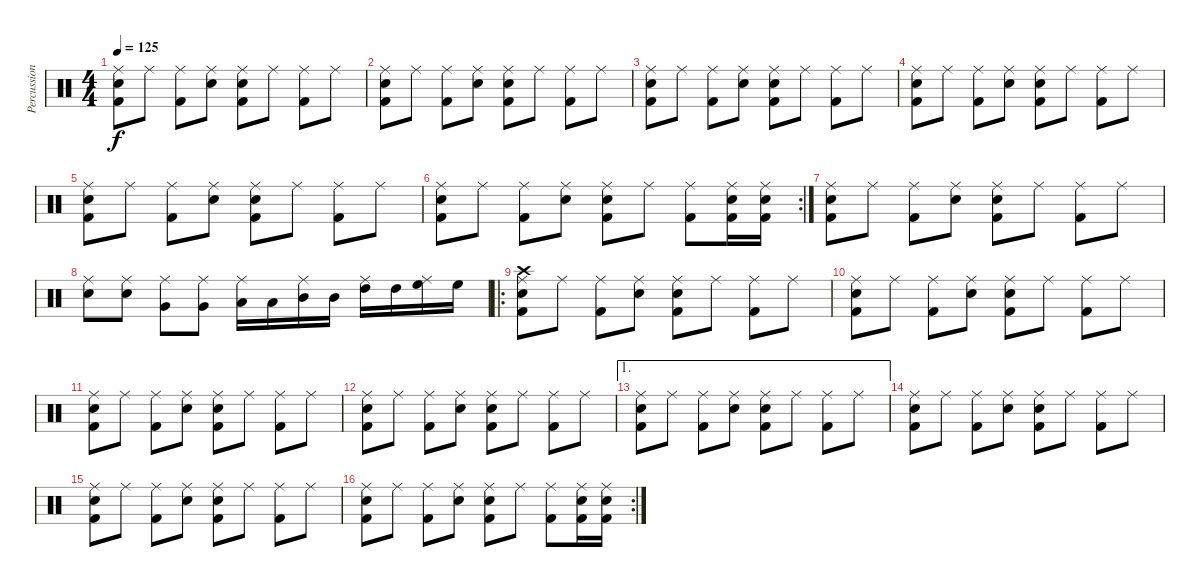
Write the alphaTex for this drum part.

\track ("Percussions" "Percussion") {instrument percussion}
\staff {score}
\articulation defaults
\ts (4 4)
\tempo 125
\clef neutral
\ks c
("Snare (hit) 2" "Kick (hit) 2" "Ride (middle)").8{dy f} "Ride (middle)".8 ("Kick (hit) 2" "Ride (middle)").8 ("Snare (hit) 2" "Ride (middle)").8 ("Snare (hit) 2" "Kick (hit) 2" "Ride (middle)").8 "Ride (middle)".8 ("Kick (hit) 2" "Ride (middle)").8 "Ride (middle)".8 |
("Snare (hit) 2" "Kick (hit) 2" "Ride (middle)").8 "Ride (middle)".8 ("Kick (hit) 2" "Ride (middle)").8 ("Snare (hit) 2" "Ride (middle)").8 ("Snare (hit) 2" "Kick (hit) 2" "Ride (middle)").8 "Ride (middle)".8 ("Kick (hit) 2" "Ride (middle)").8 "Ride (middle)".8 |
("Snare (hit) 2" "Kick (hit) 2" "Ride (middle)").8 "Ride (middle)".8 ("Kick (hit) 2" "Ride (middle)").8 ("Snare (hit) 2" "Ride (middle)").8 ("Snare (hit) 2" "Kick (hit) 2" "Ride (middle)").8 "Ride (middle)".8 ("Kick (hit) 2" "Ride (middle)").8 "Ride (middle)".8 |
("Snare (hit) 2" "Kick (hit) 2" "Ride (middle)").8 "Ride (middle)".8 ("Kick (hit) 2" "Ride (middle)").8 ("Snare (hit) 2" "Ride (middle)").8 ("Snare (hit) 2" "Kick (hit) 2" "Ride (middle)").8 "Ride (middle)".8 ("Kick (hit) 2" "Ride (middle)").8 "Ride (middle)".8 |
("Snare (hit) 2" "Kick (hit) 2" "Ride (middle)").8 "Ride (middle)".8 ("Kick (hit) 2" "Ride (middle)").8 ("Snare (hit) 2" "Ride (middle)").8 ("Snare (hit) 2" "Kick (hit) 2" "Ride (middle)").8 "Ride (middle)".8 ("Kick (hit) 2" "Ride (middle)").8 "Ride (middle)".8 |
\rc 2
("Snare (hit) 2" "Kick (hit) 2" "Ride (middle)").8 "Ride (middle)".8 ("Kick (hit) 2" "Ride (middle)").8 ("Snare (hit) 2" "Ride (middle)").8 ("Snare (hit) 2" "Kick (hit) 2" "Ride (middle)").8 "Ride (middle)".8 ("Kick (hit) 2" "Ride (middle)").8 ("Snare (hit) 2" "Kick (hit) 2" "Ride (middle)").16 ("Snare (hit) 2" "Kick (hit) 2" "Ride (middle)").16 |
("Snare (hit) 2" "Kick (hit) 2" "Ride (middle)").8 "Ride (middle)".8 ("Kick (hit) 2" "Ride (middle)").8 ("Snare (hit) 2" "Ride (middle)").8 ("Snare (hit) 2" "Kick (hit) 2" "Ride (middle)").8 "Ride (middle)".8 ("Kick (hit) 2" "Ride (middle)").8 "Ride (middle)".8 |
("Electric Snare (hit)" "Ride (middle)").8 ("Electric Snare (hit)" "Ride (middle)").8 ("Very Low Tom (hit)" "Ride (middle)").8 ("Very Low Tom (hit)" "Ride (middle)").8 ("Low Tom (hit)" "Ride (middle)").16 "Low Tom (hit)".16 ("Mid Tom (hit)" "Ride (middle)").16 "Mid Tom (hit)".16 ("High Tom (hit)" "Ride (middle)").16 "High Tom (hit)".16 ("High Floor Tom (hit)" "Ride (middle)").16 "High Floor Tom (hit)".16 |
\ro
("Crash high (hit)" "Snare (hit) 2" "Kick (hit) 2" "Ride (middle)").8 "Ride (middle)".8 ("Kick (hit) 2" "Ride (middle)").8 ("Snare (hit) 2" "Ride (middle)").8 ("Snare (hit) 2" "Kick (hit) 2" "Ride (middle)").8 "Ride (middle)".8 ("Kick (hit) 2" "Ride (middle)").8 "Ride (middle)".8 |
("Snare (hit) 2" "Kick (hit) 2" "Ride (middle)").8 "Ride (middle)".8 ("Kick (hit) 2" "Ride (middle)").8 ("Snare (hit) 2" "Ride (middle)").8 ("Snare (hit) 2" "Kick (hit) 2" "Ride (middle)").8 "Ride (middle)".8 ("Kick (hit) 2" "Ride (middle)").8 "Ride (middle)".8 |
("Snare (hit) 2" "Kick (hit) 2" "Ride (middle)").8 "Ride (middle)".8 ("Kick (hit) 2" "Ride (middle)").8 ("Snare (hit) 2" "Ride (middle)").8 ("Snare (hit) 2" "Kick (hit) 2" "Ride (middle)").8 "Ride (middle)".8 ("Kick (hit) 2" "Ride (middle)").8 "Ride (middle)".8 |
("Snare (hit) 2" "Kick (hit) 2" "Ride (middle)").8 "Ride (middle)".8 ("Kick (hit) 2" "Ride (middle)").8 ("Snare (hit) 2" "Ride (middle)").8 ("Snare (hit) 2" "Kick (hit) 2" "Ride (middle)").8 "Ride (middle)".8 ("Kick (hit) 2" "Ride (middle)").8 "Ride (middle)".8 |
\ae 1
("Snare (hit) 2" "Kick (hit) 2" "Ride (middle)").8 "Ride (middle)".8 ("Kick (hit) 2" "Ride (middle)").8 ("Snare (hit) 2" "Ride (middle)").8 ("Snare (hit) 2" "Kick (hit) 2" "Ride (middle)").8 "Ride (middle)".8 ("Kick (hit) 2" "Ride (middle)").8 "Ride (middle)".8 |
("Snare (hit) 2" "Kick (hit) 2" "Ride (middle)").8 "Ride (middle)".8 ("Kick (hit) 2" "Ride (middle)").8 ("Snare (hit) 2" "Ride (middle)").8 ("Snare (hit) 2" "Kick (hit) 2" "Ride (middle)").8 "Ride (middle)".8 ("Kick (hit) 2" "Ride (middle)").8 "Ride (middle)".8 |
("Snare (hit) 2" "Kick (hit) 2" "Ride (middle)").8 "Ride (middle)".8 ("Kick (hit) 2" "Ride (middle)").8 ("Snare (hit) 2" "Ride (middle)").8 ("Snare (hit) 2" "Kick (hit) 2" "Ride (middle)").8 "Ride (middle)".8 ("Kick (hit) 2" "Ride (middle)").8 "Ride (middle)".8 |
\rc 2
("Snare (hit) 2" "Kick (hit) 2" "Ride (middle)").8 "Ride (middle)".8 ("Kick (hit) 2" "Ride (middle)").8 ("Snare (hit) 2" "Ride (middle)").8 ("Snare (hit) 2" "Kick (hit) 2" "Ride (middle)").8 "Ride (middle)".8 ("Kick (hit) 2" "Ride (middle)").8 ("Snare (hit) 2" "Kick (hit) 2" "Ride (middle)").16 ("Snare (hit) 2" "Kick (hit) 2" "Ride (middle)").16
